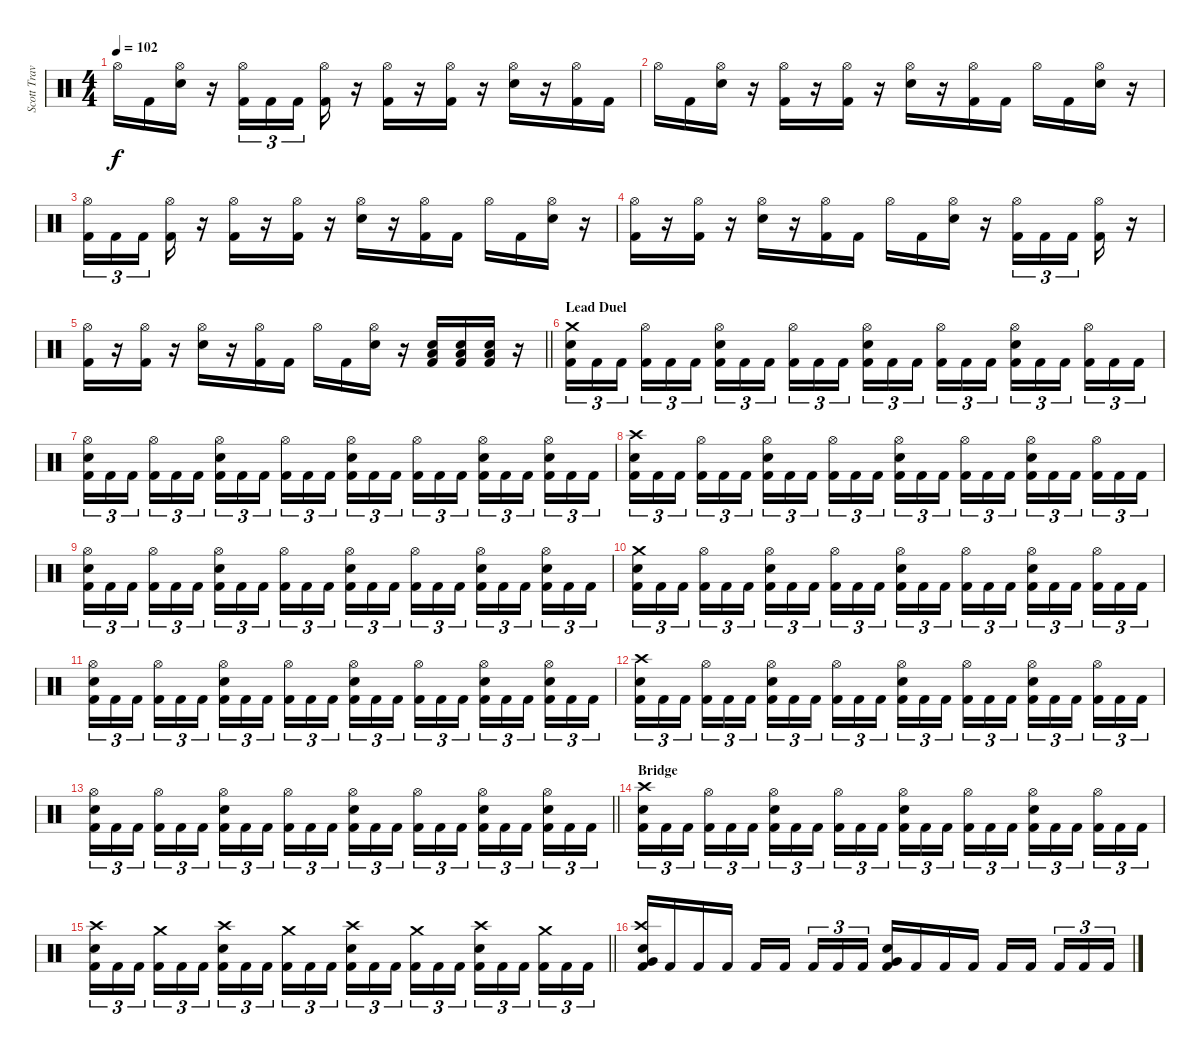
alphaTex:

\track ("Scott Travis" "Scott Trav") {instrument percussion}
\staff {score}
\articulation defaults
\ts (4 4)
\tempo 102
\clef neutral
\ks c "Hi-Hat (open)".16{dy f} "Kick (hit) 2".16
("Hi-Hat (open)" "Snare (hit) 2").16 r.16 ("Hi-Hat (open)" "Kick (hit) 2").16{tu (3 2)} "Kick (hit) 2".16{tu (3 2)} "Kick (hit) 2".16{tu (3 2) beam splitsecondary} ("Hi-Hat (open)" "Kick (hit) 2").16 r.16 ("Hi-Hat (open)" "Kick (hit) 2").16 r.16 ("Hi-Hat (open)" "Kick (hit) 2").16 r.16 ("Hi-Hat (open)" "Snare (hit) 2").16 r.16 ("Hi-Hat (open)" "Kick (hit) 2").16 "Kick (hit) 2".16 |
"Hi-Hat (open)".16 "Kick (hit) 2".16 ("Hi-Hat (open)" "Snare (hit) 2").16 r.16 ("Hi-Hat (open)" "Kick (hit) 2").16 r.16 ("Hi-Hat (open)" "Kick (hit) 2").16 r.16 ("Hi-Hat (open)" "Snare (hit) 2").16 r.16 ("Hi-Hat (open)" "Kick (hit) 2").16 "Kick (hit) 2".16 "Hi-Hat (open)".16 "Kick (hit) 2".16 ("Hi-Hat (open)" "Snare (hit) 2").16 r.16 |
("Hi-Hat (open)" "Kick (hit) 2").16{tu (3 2)} "Kick (hit) 2".16{tu (3 2)} "Kick (hit) 2".16{tu (3 2) beam splitsecondary} ("Hi-Hat (open)" "Kick (hit) 2").16 r.16 ("Hi-Hat (open)" "Kick (hit) 2").16 r.16 ("Hi-Hat (open)" "Kick (hit) 2").16 r.16 ("Hi-Hat (open)" "Snare (hit) 2").16 r.16 ("Hi-Hat (open)" "Kick (hit) 2").16 "Kick (hit) 2".16 "Hi-Hat (open)".16 "Kick (hit) 2".16 ("Hi-Hat (open)" "Snare (hit) 2").16 r.16 |
("Hi-Hat (open)" "Kick (hit) 2").16 r.16 ("Hi-Hat (open)" "Kick (hit) 2").16 r.16 ("Hi-Hat (open)" "Snare (hit) 2").16 r.16 ("Hi-Hat (open)" "Kick (hit) 2").16 "Kick (hit) 2".16 "Hi-Hat (open)".16 "Kick (hit) 2".16 ("Hi-Hat (open)" "Snare (hit) 2").16 r.16 ("Hi-Hat (open)" "Kick (hit) 2").16{tu (3 2)} "Kick (hit) 2".16{tu (3 2)} "Kick (hit) 2".16{tu (3 2) beam splitsecondary} ("Hi-Hat (open)" "Kick (hit) 2").16 r.16 |
\barLineRight lightlight
("Hi-Hat (open)" "Kick (hit) 2").16 r.16 ("Hi-Hat (open)" "Kick (hit) 2").16 r.16 ("Hi-Hat (open)" "Snare (hit) 2").16 r.16 ("Hi-Hat (open)" "Kick (hit) 2").16 "Kick (hit) 2".16 "Hi-Hat (open)".16 "Kick (hit) 2".16 ("Hi-Hat (open)" "Snare (hit) 2").16 r.16 ("Low Tom (hit)" "Snare (hit) 2" "Kick (hit) 2").16 ("Low Tom (hit)" "Snare (hit) 2" "Kick (hit) 2").16 ("Low Tom (hit)" "Snare (hit) 2" "Kick (hit) 2").16 r.16 |
\section ("" "Lead Duel")
("Crash medium (hit)" "Snare (hit) 2" "Kick (hit) 2").16{tu (3 2)} "Kick (hit) 2".16{tu (3 2)} "Kick (hit) 2".16{tu (3 2) beam splitsecondary} ("Hi-Hat (open)" "Kick (hit) 2").16{tu (3 2)} "Kick (hit) 2".16{tu (3 2)} "Kick (hit) 2".16{tu (3 2)} ("Hi-Hat (open)" "Snare (hit) 2" "Kick (hit) 2").16{tu (3 2)} "Kick (hit) 2".16{tu (3 2)} "Kick (hit) 2".16{tu (3 2) beam splitsecondary} ("Hi-Hat (open)" "Kick (hit) 2").16{tu (3 2)} "Kick (hit) 2".16{tu (3 2)} "Kick (hit) 2".16{tu (3 2)} ("Hi-Hat (open)" "Snare (hit) 2" "Kick (hit) 2").16{tu (3 2)} "Kick (hit) 2".16{tu (3 2)} "Kick (hit) 2".16{tu (3 2) beam splitsecondary} ("Hi-Hat (open)" "Kick (hit) 2").16{tu (3 2)} "Kick (hit) 2".16{tu (3 2)} "Kick (hit) 2".16{tu (3 2)} ("Hi-Hat (open)" "Snare (hit) 2" "Kick (hit) 2").16{tu (3 2)} "Kick (hit) 2".16{tu (3 2)} "Kick (hit) 2".16{tu (3 2) beam splitsecondary} ("Hi-Hat (open)" "Kick (hit) 2").16{tu (3 2)} "Kick (hit) 2".16{tu (3 2)} "Kick (hit) 2".16{tu (3 2)} |
("Hi-Hat (open)" "Snare (hit) 2" "Kick (hit) 2").16{tu (3 2)} "Kick (hit) 2".16{tu (3 2)} "Kick (hit) 2".16{tu (3 2) beam splitsecondary} ("Hi-Hat (open)" "Kick (hit) 2").16{tu (3 2)} "Kick (hit) 2".16{tu (3 2)} "Kick (hit) 2".16{tu (3 2)} ("Hi-Hat (open)" "Snare (hit) 2" "Kick (hit) 2").16{tu (3 2)} "Kick (hit) 2".16{tu (3 2)} "Kick (hit) 2".16{tu (3 2) beam splitsecondary} ("Hi-Hat (open)" "Kick (hit) 2").16{tu (3 2)} "Kick (hit) 2".16{tu (3 2)} "Kick (hit) 2".16{tu (3 2)} ("Hi-Hat (open)" "Snare (hit) 2" "Kick (hit) 2").16{tu (3 2)} "Kick (hit) 2".16{tu (3 2)} "Kick (hit) 2".16{tu (3 2) beam splitsecondary} ("Hi-Hat (open)" "Kick (hit) 2").16{tu (3 2)} "Kick (hit) 2".16{tu (3 2)} "Kick (hit) 2".16{tu (3 2)} ("Hi-Hat (open)" "Snare (hit) 2" "Kick (hit) 2").16{tu (3 2)} "Kick (hit) 2".16{tu (3 2)} "Kick (hit) 2".16{tu (3 2) beam splitsecondary} ("Hi-Hat (open)" "Snare (hit) 2" "Kick (hit) 2").16{tu (3 2)} "Kick (hit) 2".16{tu (3 2)} "Kick (hit) 2".16{tu (3 2)} |
("Crash high (hit)" "Snare (hit) 2" "Kick (hit) 2").16{tu (3 2)} "Kick (hit) 2".16{tu (3 2)} "Kick (hit) 2".16{tu (3 2) beam splitsecondary} ("Hi-Hat (open)" "Kick (hit) 2").16{tu (3 2)} "Kick (hit) 2".16{tu (3 2)} "Kick (hit) 2".16{tu (3 2)} ("Hi-Hat (open)" "Snare (hit) 2" "Kick (hit) 2").16{tu (3 2)} "Kick (hit) 2".16{tu (3 2)} "Kick (hit) 2".16{tu (3 2) beam splitsecondary} ("Hi-Hat (open)" "Kick (hit) 2").16{tu (3 2)} "Kick (hit) 2".16{tu (3 2)} "Kick (hit) 2".16{tu (3 2)} ("Hi-Hat (open)" "Snare (hit) 2" "Kick (hit) 2").16{tu (3 2)} "Kick (hit) 2".16{tu (3 2)} "Kick (hit) 2".16{tu (3 2) beam splitsecondary} ("Hi-Hat (open)" "Kick (hit) 2").16{tu (3 2)} "Kick (hit) 2".16{tu (3 2)} "Kick (hit) 2".16{tu (3 2)} ("Hi-Hat (open)" "Snare (hit) 2" "Kick (hit) 2").16{tu (3 2)} "Kick (hit) 2".16{tu (3 2)} "Kick (hit) 2".16{tu (3 2) beam splitsecondary} ("Hi-Hat (open)" "Kick (hit) 2").16{tu (3 2)} "Kick (hit) 2".16{tu (3 2)} "Kick (hit) 2".16{tu (3 2)} |
("Hi-Hat (open)" "Snare (hit) 2" "Kick (hit) 2").16{tu (3 2)} "Kick (hit) 2".16{tu (3 2)} "Kick (hit) 2".16{tu (3 2) beam splitsecondary} ("Hi-Hat (open)" "Kick (hit) 2").16{tu (3 2)} "Kick (hit) 2".16{tu (3 2)} "Kick (hit) 2".16{tu (3 2)} ("Hi-Hat (open)" "Snare (hit) 2" "Kick (hit) 2").16{tu (3 2)} "Kick (hit) 2".16{tu (3 2)} "Kick (hit) 2".16{tu (3 2) beam splitsecondary} ("Hi-Hat (open)" "Kick (hit) 2").16{tu (3 2)} "Kick (hit) 2".16{tu (3 2)} "Kick (hit) 2".16{tu (3 2)} ("Hi-Hat (open)" "Snare (hit) 2" "Kick (hit) 2").16{tu (3 2)} "Kick (hit) 2".16{tu (3 2)} "Kick (hit) 2".16{tu (3 2) beam splitsecondary} ("Hi-Hat (open)" "Kick (hit) 2").16{tu (3 2)} "Kick (hit) 2".16{tu (3 2)} "Kick (hit) 2".16{tu (3 2)} ("Hi-Hat (open)" "Snare (hit) 2" "Kick (hit) 2").16{tu (3 2)} "Kick (hit) 2".16{tu (3 2)} "Kick (hit) 2".16{tu (3 2) beam splitsecondary} ("Hi-Hat (open)" "Snare (hit) 2" "Kick (hit) 2").16{tu (3 2)} "Kick (hit) 2".16{tu (3 2)} "Kick (hit) 2".16{tu (3 2)} |
("Crash medium (hit)" "Snare (hit) 2" "Kick (hit) 2").16{tu (3 2)} "Kick (hit) 2".16{tu (3 2)} "Kick (hit) 2".16{tu (3 2) beam splitsecondary} ("Hi-Hat (open)" "Kick (hit) 2").16{tu (3 2)} "Kick (hit) 2".16{tu (3 2)} "Kick (hit) 2".16{tu (3 2)} ("Hi-Hat (open)" "Snare (hit) 2" "Kick (hit) 2").16{tu (3 2)} "Kick (hit) 2".16{tu (3 2)} "Kick (hit) 2".16{tu (3 2) beam splitsecondary} ("Hi-Hat (open)" "Kick (hit) 2").16{tu (3 2)} "Kick (hit) 2".16{tu (3 2)} "Kick (hit) 2".16{tu (3 2)} ("Hi-Hat (open)" "Snare (hit) 2" "Kick (hit) 2").16{tu (3 2)} "Kick (hit) 2".16{tu (3 2)} "Kick (hit) 2".16{tu (3 2) beam splitsecondary} ("Hi-Hat (open)" "Kick (hit) 2").16{tu (3 2)} "Kick (hit) 2".16{tu (3 2)} "Kick (hit) 2".16{tu (3 2)} ("Hi-Hat (open)" "Snare (hit) 2" "Kick (hit) 2").16{tu (3 2)} "Kick (hit) 2".16{tu (3 2)} "Kick (hit) 2".16{tu (3 2) beam splitsecondary} ("Hi-Hat (open)" "Kick (hit) 2").16{tu (3 2)} "Kick (hit) 2".16{tu (3 2)} "Kick (hit) 2".16{tu (3 2)} |
("Hi-Hat (open)" "Snare (hit) 2" "Kick (hit) 2").16{tu (3 2)} "Kick (hit) 2".16{tu (3 2)} "Kick (hit) 2".16{tu (3 2) beam splitsecondary} ("Hi-Hat (open)" "Kick (hit) 2").16{tu (3 2)} "Kick (hit) 2".16{tu (3 2)} "Kick (hit) 2".16{tu (3 2)} ("Hi-Hat (open)" "Snare (hit) 2" "Kick (hit) 2").16{tu (3 2)} "Kick (hit) 2".16{tu (3 2)} "Kick (hit) 2".16{tu (3 2) beam splitsecondary} ("Hi-Hat (open)" "Kick (hit) 2").16{tu (3 2)} "Kick (hit) 2".16{tu (3 2)} "Kick (hit) 2".16{tu (3 2)} ("Hi-Hat (open)" "Snare (hit) 2" "Kick (hit) 2").16{tu (3 2)} "Kick (hit) 2".16{tu (3 2)} "Kick (hit) 2".16{tu (3 2) beam splitsecondary} ("Hi-Hat (open)" "Kick (hit) 2").16{tu (3 2)} "Kick (hit) 2".16{tu (3 2)} "Kick (hit) 2".16{tu (3 2)} ("Hi-Hat (open)" "Snare (hit) 2" "Kick (hit) 2").16{tu (3 2)} "Kick (hit) 2".16{tu (3 2)} "Kick (hit) 2".16{tu (3 2) beam splitsecondary} ("Hi-Hat (open)" "Snare (hit) 2" "Kick (hit) 2").16{tu (3 2)} "Kick (hit) 2".16{tu (3 2)} "Kick (hit) 2".16{tu (3 2)} |
("Crash high (hit)" "Snare (hit) 2" "Kick (hit) 2").16{tu (3 2)} "Kick (hit) 2".16{tu (3 2)} "Kick (hit) 2".16{tu (3 2) beam splitsecondary} ("Hi-Hat (open)" "Kick (hit) 2").16{tu (3 2)} "Kick (hit) 2".16{tu (3 2)} "Kick (hit) 2".16{tu (3 2)} ("Hi-Hat (open)" "Snare (hit) 2" "Kick (hit) 2").16{tu (3 2)} "Kick (hit) 2".16{tu (3 2)} "Kick (hit) 2".16{tu (3 2) beam splitsecondary} ("Hi-Hat (open)" "Kick (hit) 2").16{tu (3 2)} "Kick (hit) 2".16{tu (3 2)} "Kick (hit) 2".16{tu (3 2)} ("Hi-Hat (open)" "Snare (hit) 2" "Kick (hit) 2").16{tu (3 2)} "Kick (hit) 2".16{tu (3 2)} "Kick (hit) 2".16{tu (3 2) beam splitsecondary} ("Hi-Hat (open)" "Kick (hit) 2").16{tu (3 2)} "Kick (hit) 2".16{tu (3 2)} "Kick (hit) 2".16{tu (3 2)} ("Hi-Hat (open)" "Snare (hit) 2" "Kick (hit) 2").16{tu (3 2)} "Kick (hit) 2".16{tu (3 2)} "Kick (hit) 2".16{tu (3 2) beam splitsecondary} ("Hi-Hat (open)" "Kick (hit) 2").16{tu (3 2)} "Kick (hit) 2".16{tu (3 2)} "Kick (hit) 2".16{tu (3 2)} |
\barLineRight lightlight
("Hi-Hat (open)" "Snare (hit) 2" "Kick (hit) 2").16{tu (3 2)} "Kick (hit) 2".16{tu (3 2)} "Kick (hit) 2".16{tu (3 2) beam splitsecondary} ("Hi-Hat (open)" "Kick (hit) 2").16{tu (3 2)} "Kick (hit) 2".16{tu (3 2)} "Kick (hit) 2".16{tu (3 2)} ("Hi-Hat (open)" "Snare (hit) 2" "Kick (hit) 2").16{tu (3 2)} "Kick (hit) 2".16{tu (3 2)} "Kick (hit) 2".16{tu (3 2) beam splitsecondary} ("Hi-Hat (open)" "Kick (hit) 2").16{tu (3 2)} "Kick (hit) 2".16{tu (3 2)} "Kick (hit) 2".16{tu (3 2)} ("Hi-Hat (open)" "Snare (hit) 2" "Kick (hit) 2").16{tu (3 2)} "Kick (hit) 2".16{tu (3 2)} "Kick (hit) 2".16{tu (3 2) beam splitsecondary} ("Hi-Hat (open)" "Kick (hit) 2").16{tu (3 2)} "Kick (hit) 2".16{tu (3 2)} "Kick (hit) 2".16{tu (3 2)} ("Hi-Hat (open)" "Snare (hit) 2" "Kick (hit) 2").16{tu (3 2)} "Kick (hit) 2".16{tu (3 2)} "Kick (hit) 2".16{tu (3 2) beam splitsecondary} ("Hi-Hat (open)" "Snare (hit) 2" "Kick (hit) 2").16{tu (3 2)} "Kick (hit) 2".16{tu (3 2)} "Kick (hit) 2".16{tu (3 2)} |
\section ("" "Bridge")
("Crash high (hit)" "Snare (hit) 2" "Kick (hit) 2").16{tu (3 2)} "Kick (hit) 2".16{tu (3 2)} "Kick (hit) 2".16{tu (3 2) beam splitsecondary} ("Hi-Hat (open)" "Kick (hit) 2").16{tu (3 2)} "Kick (hit) 2".16{tu (3 2)} "Kick (hit) 2".16{tu (3 2)} ("Hi-Hat (open)" "Snare (hit) 2" "Kick (hit) 2").16{tu (3 2)} "Kick (hit) 2".16{tu (3 2)} "Kick (hit) 2".16{tu (3 2) beam splitsecondary} ("Hi-Hat (open)" "Kick (hit) 2").16{tu (3 2)} "Kick (hit) 2".16{tu (3 2)} "Kick (hit) 2".16{tu (3 2)} ("Hi-Hat (open)" "Snare (hit) 2" "Kick (hit) 2").16{tu (3 2)} "Kick (hit) 2".16{tu (3 2)} "Kick (hit) 2".16{tu (3 2) beam splitsecondary} ("Hi-Hat (open)" "Kick (hit) 2").16{tu (3 2)} "Kick (hit) 2".16{tu (3 2)} "Kick (hit) 2".16{tu (3 2)} ("Hi-Hat (open)" "Snare (hit) 2" "Kick (hit) 2").16{tu (3 2)} "Kick (hit) 2".16{tu (3 2)} "Kick (hit) 2".16{tu (3 2) beam splitsecondary} ("Hi-Hat (open)" "Kick (hit) 2").16{tu (3 2)} "Kick (hit) 2".16{tu (3 2)} "Kick (hit) 2".16{tu (3 2)} |
\barLineRight lightlight
("Crash high (hit)" "Snare (hit) 2" "Kick (hit) 2").16{tu (3 2)} "Kick (hit) 2".16{tu (3 2)} "Kick (hit) 2".16{tu (3 2) beam splitsecondary} ("Crash medium (hit)" "Kick (hit) 2").16{tu (3 2)} "Kick (hit) 2".16{tu (3 2)} "Kick (hit) 2".16{tu (3 2)} ("Crash high (hit)" "Snare (hit) 2" "Kick (hit) 2").16{tu (3 2)} "Kick (hit) 2".16{tu (3 2)} "Kick (hit) 2".16{tu (3 2) beam splitsecondary} ("Crash medium (hit)" "Kick (hit) 2").16{tu (3 2)} "Kick (hit) 2".16{tu (3 2)} "Kick (hit) 2".16{tu (3 2)} ("Crash high (hit)" "Snare (hit) 2" "Kick (hit) 2").16{tu (3 2)} "Kick (hit) 2".16{tu (3 2)} "Kick (hit) 2".16{tu (3 2) beam splitsecondary} ("Crash medium (hit)" "Kick (hit) 2").16{tu (3 2)} "Kick (hit) 2".16{tu (3 2)} "Kick (hit) 2".16{tu (3 2)} ("Crash high (hit)" "Snare (hit) 2" "Kick (hit) 2").16{tu (3 2)} "Kick (hit) 2".16{tu (3 2)} "Kick (hit) 2".16{tu (3 2) beam splitsecondary} ("Crash medium (hit)" "Kick (hit) 2").16{tu (3 2)} "Kick (hit) 2".16{tu (3 2)} "Kick (hit) 2".16{tu (3 2)} |
("Crash high (hit)" "Very Low Tom (hit)" "Snare (hit) 2" "Kick (hit) 2").16 "Kick (hit) 2".16 "Kick (hit) 2".16 "Kick (hit) 2".16 "Kick (hit) 2".16 "Kick (hit) 2".16{beam splitsecondary} "Kick (hit) 2".16{tu (3 2)} "Kick (hit) 2".16{tu (3 2)} "Kick (hit) 2".16{tu (3 2)} ("Very Low Tom (hit)" "Snare (hit) 2" "Kick (hit) 2").16 "Kick (hit) 2".16 "Kick (hit) 2".16 "Kick (hit) 2".16 "Kick (hit) 2".16 "Kick (hit) 2".16{beam splitsecondary} "Kick (hit) 2".16{tu (3 2)} "Kick (hit) 2".16{tu (3 2)} "Kick (hit) 2".16{tu (3 2)}
